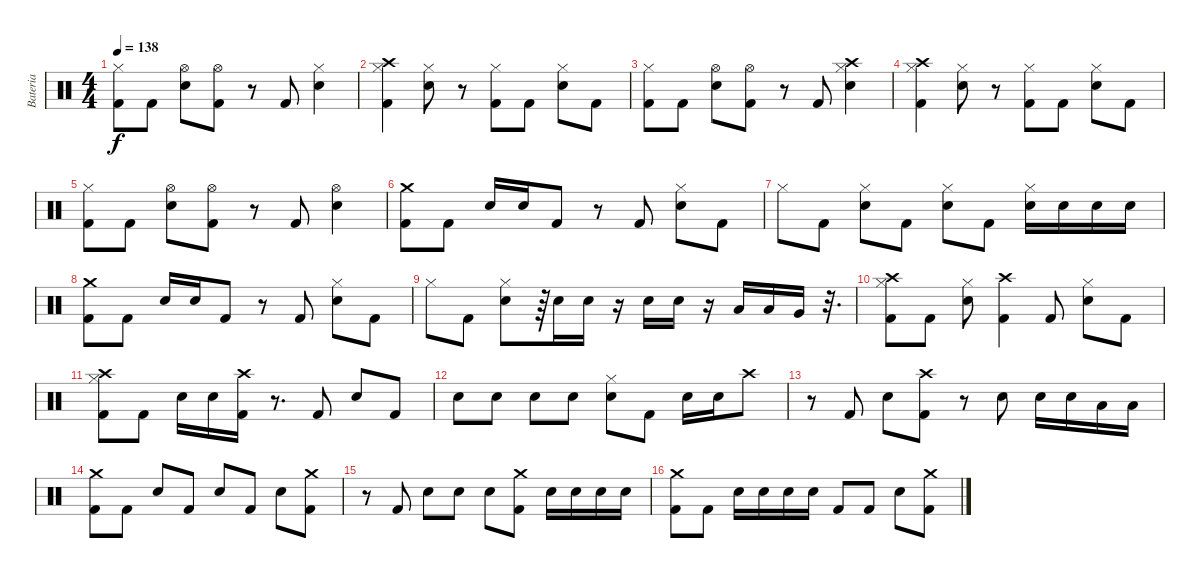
\track ("Bateria" "Bateria") {instrument percussion}
\staff {score}
\articulation defaults
\ts (4 4)
\tempo 138
\clef neutral
\ks c
("Hi-Hat (closed)" "Kick (hit) 2").8{dy f} "Kick (hit) 2".8 ("Hi-Hat (open)" "Electric Snare (hit)").8 ("Hi-Hat (open)" "Kick (hit) 2").8 r.8 "Kick (hit) 2".8 ("Hi-Hat (closed)" "Electric Snare (hit)").4 |
("Crash high (hit)" "Hi-Hat (closed)" "Kick (hit) 2").4 ("Hi-Hat (closed)" "Electric Snare (hit)").8 r.8 ("Hi-Hat (closed)" "Kick (hit) 2").8 "Kick (hit) 2".8 ("Hi-Hat (closed)" "Electric Snare (hit)").8 "Kick (hit) 2".8 |
("Hi-Hat (closed)" "Kick (hit) 2").8 "Kick (hit) 2".8 ("Hi-Hat (open)" "Electric Snare (hit)").8 ("Hi-Hat (open)" "Kick (hit) 2").8 r.8 "Kick (hit) 2".8 ("Crash high (hit)" "Hi-Hat (closed)" "Electric Snare (hit)").4 |
("Crash high (hit)" "Hi-Hat (closed)" "Kick (hit) 2").4 ("Hi-Hat (closed)" "Electric Snare (hit)").8 r.8 ("Hi-Hat (closed)" "Kick (hit) 2").8 "Kick (hit) 2".8 ("Hi-Hat (closed)" "Electric Snare (hit)").8 "Kick (hit) 2".8 |
("Hi-Hat (closed)" "Kick (hit) 2").8 "Kick (hit) 2".8 ("Hi-Hat (open)" "Electric Snare (hit)").8 ("Hi-Hat (open)" "Kick (hit) 2").8 r.8 "Kick (hit) 2".8 ("Hi-Hat (open)" "Electric Snare (hit)").4 |
("Crash medium (hit)" "Kick (hit) 2").8 "Kick (hit) 2".8 "Electric Snare (hit)".16 "Electric Snare (hit)".16 "Kick (hit) 2".8 r.8 "Kick (hit) 2".8 ("Hi-Hat (closed)" "Electric Snare (hit)").8 "Kick (hit) 2".8 |
"Hi-Hat (closed)".8 "Kick (hit) 2".8 ("Hi-Hat (closed)" "Electric Snare (hit)").8 "Kick (hit) 2".8 ("Hi-Hat (closed)" "Electric Snare (hit)").8 "Kick (hit) 2".8 ("Hi-Hat (closed)" "Electric Snare (hit)").16 "Electric Snare (hit)".16 "Electric Snare (hit)".16 "Electric Snare (hit)".16 |
("Crash medium (hit)" "Kick (hit) 2").8 "Kick (hit) 2".8 "Electric Snare (hit)".16 "Electric Snare (hit)".16 "Kick (hit) 2".8 r.8 "Kick (hit) 2".8 ("Hi-Hat (closed)" "Electric Snare (hit)").8 "Kick (hit) 2".8 |
"Hi-Hat (closed)".8 "Kick (hit) 2".8 ("Hi-Hat (closed)" "Electric Snare (hit)").8 r.64 "Electric Snare (hit)".16 "Electric Snare (hit)".16 r.16 "Electric Snare (hit)".16 "Electric Snare (hit)".16 r.16 "Low Tom (hit)".16 "Low Tom (hit)".16 "Very Low Tom (hit)".16 r.32{d} |
("Crash high (hit)" "Hi-Hat (closed)" "Kick (hit) 2").8 "Kick (hit) 2".8 ("Hi-Hat (closed)" "Electric Snare (hit)").8 ("Crash high (hit)" "Kick (hit) 2").4 "Kick (hit) 2".8 ("Hi-Hat (closed)" "Electric Snare (hit)").8 "Kick (hit) 2".8 |
("Crash high (hit)" "Hi-Hat (closed)" "Kick (hit) 2").8 "Kick (hit) 2".8 "Electric Snare (hit)".16 "Electric Snare (hit)".16 ("Crash high (hit)" "Kick (hit) 2").16 r.8{d} "Kick (hit) 2".8 "Electric Snare (hit)".8 "Kick (hit) 2".8 |
"Electric Snare (hit)".8 "Electric Snare (hit)".8 "Electric Snare (hit)".8 "Electric Snare (hit)".8 ("Hi-Hat (closed)" "Electric Snare (hit)").8 "Kick (hit) 2".8 "Electric Snare (hit)".16 "Electric Snare (hit)".16 "Crash high (hit)".8 |
r.8 "Kick (hit) 2".8 "Electric Snare (hit)".8 ("Crash high (hit)" "Kick (hit) 2").8 r.8 "Electric Snare (hit)".8 "Electric Snare (hit)".16 "Electric Snare (hit)".16 "Low Tom (hit)".16 "Low Tom (hit)".16 |
("Crash medium (hit)" "Kick (hit) 2").8 "Kick (hit) 2".8 "Electric Snare (hit)".8 "Kick (hit) 2".8 "Electric Snare (hit)".8 "Kick (hit) 2".8 "Electric Snare (hit)".8 ("Crash medium (hit)" "Kick (hit) 2").8 |
r.8 "Kick (hit) 2".8 "Electric Snare (hit)".8 "Electric Snare (hit)".8 "Electric Snare (hit)".8 ("Crash medium (hit)" "Kick (hit) 2").8 "Electric Snare (hit)".16 "Electric Snare (hit)".16 "Electric Snare (hit)".16 "Electric Snare (hit)".16 |
("Crash medium (hit)" "Kick (hit) 2").8 "Kick (hit) 2".8 "Electric Snare (hit)".16 "Electric Snare (hit)".16 "Electric Snare (hit)".16 "Electric Snare (hit)".16 "Kick (hit) 2".8 "Kick (hit) 2".8 "Electric Snare (hit)".8 ("Crash medium (hit)" "Kick (hit) 2").8
